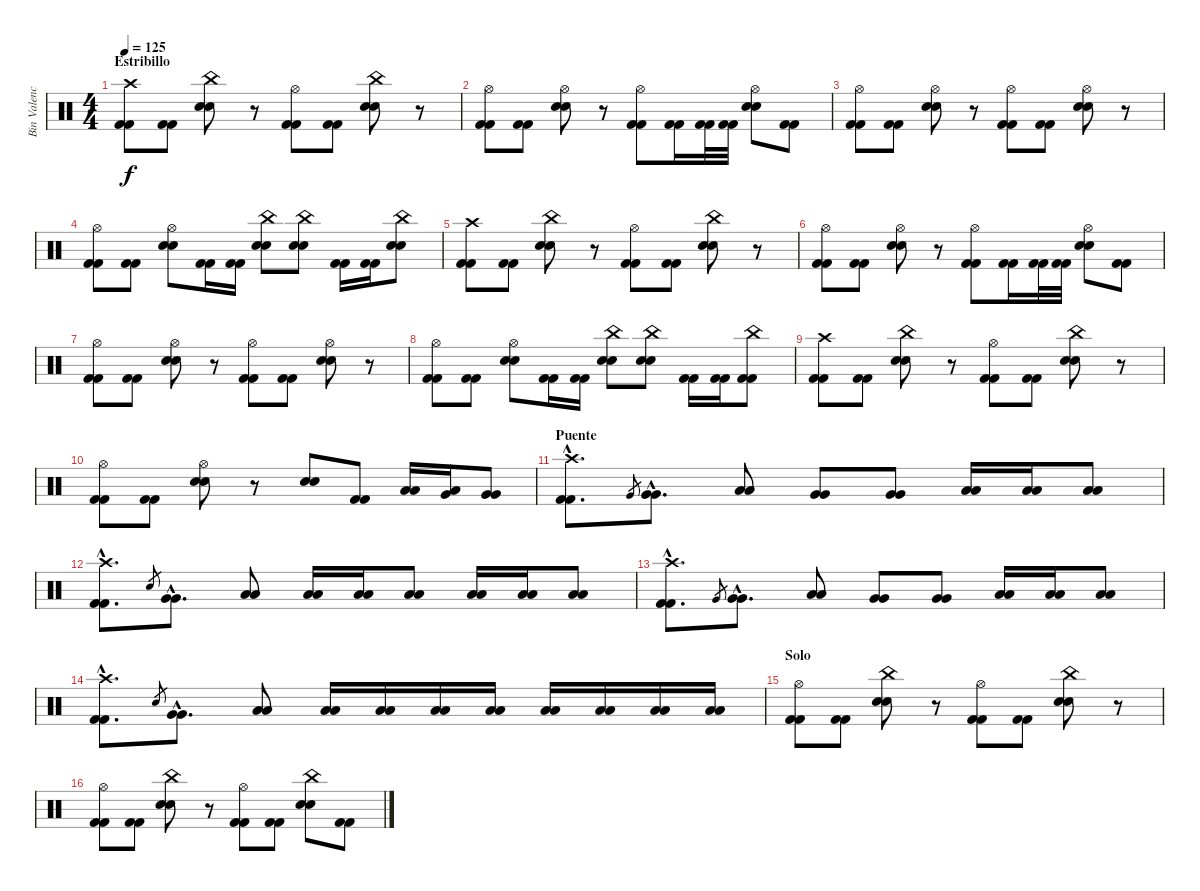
\track ("Bin Valencia (Bateria)" "Bin Valenc") {instrument percussion}
\staff {score}
\articulation defaults
\ts (4 4)
\section ("" "Estribillo")
\tempo 125
\clef neutral
\ks c
("Crash high (hit)" "Kick (hit) 2" "Kick (hit) 2").8{dy f} ("Kick (hit) 2" "Kick (hit) 2").8 ("China (hit)" "Snare (hit) 2" "Snare (hit) 2").8 r.8 ("Hi-Hat (open)" "Kick (hit) 2" "Kick (hit) 2").8 ("Kick (hit) 2" "Kick (hit) 2").8 ("China (hit)" "Snare (hit) 2" "Snare (hit) 2").8 r.8 |
("Hi-Hat (open)" "Kick (hit) 2" "Kick (hit) 2").8 ("Kick (hit) 2" "Kick (hit) 2").8 ("Hi-Hat (open)" "Snare (hit) 2" "Snare (hit) 2").8 r.8 ("Hi-Hat (open)" "Kick (hit) 2" "Kick (hit) 2").8 ("Kick (hit) 2" "Kick (hit) 2").16 ("Kick (hit) 2" "Kick (hit) 2").32 ("Kick (hit) 2" "Kick (hit) 2").32 ("Hi-Hat (open)" "Snare (hit) 2" "Snare (hit) 2").8 ("Kick (hit) 2" "Kick (hit) 2").8 |
("Hi-Hat (open)" "Kick (hit) 2" "Kick (hit) 2").8 ("Kick (hit) 2" "Kick (hit) 2").8 ("Hi-Hat (open)" "Snare (hit) 2" "Snare (hit) 2").8 r.8 ("Hi-Hat (open)" "Kick (hit) 2" "Kick (hit) 2").8 ("Kick (hit) 2" "Kick (hit) 2").8 ("Hi-Hat (open)" "Snare (hit) 2" "Snare (hit) 2").8 r.8 |
("Hi-Hat (open)" "Kick (hit) 2" "Kick (hit) 2").8 ("Kick (hit) 2" "Kick (hit) 2").8 ("Hi-Hat (open)" "Snare (hit) 2" "Snare (hit) 2").8 ("Kick (hit) 2" "Kick (hit) 2").16 ("Kick (hit) 2" "Kick (hit) 2").16 ("China (hit)" "Snare (hit) 2" "Snare (hit) 2").8 ("China (hit)" "Snare (hit) 2" "Snare (hit) 2").8 ("Kick (hit) 2" "Kick (hit) 2").16 ("Kick (hit) 2" "Kick (hit) 2").16 ("China (hit)" "Snare (hit) 2" "Snare (hit) 2").8 |
("Crash high (hit)" "Kick (hit) 2" "Kick (hit) 2").8 ("Kick (hit) 2" "Kick (hit) 2").8 ("China (hit)" "Snare (hit) 2" "Snare (hit) 2").8 r.8 ("Hi-Hat (open)" "Kick (hit) 2" "Kick (hit) 2").8 ("Kick (hit) 2" "Kick (hit) 2").8 ("China (hit)" "Snare (hit) 2" "Snare (hit) 2").8 r.8 |
("Hi-Hat (open)" "Kick (hit) 2" "Kick (hit) 2").8 ("Kick (hit) 2" "Kick (hit) 2").8 ("Hi-Hat (open)" "Snare (hit) 2" "Snare (hit) 2").8 r.8 ("Hi-Hat (open)" "Kick (hit) 2" "Kick (hit) 2").8 ("Kick (hit) 2" "Kick (hit) 2").16 ("Kick (hit) 2" "Kick (hit) 2").32 ("Kick (hit) 2" "Kick (hit) 2").32 ("Hi-Hat (open)" "Snare (hit) 2" "Snare (hit) 2").8 ("Kick (hit) 2" "Kick (hit) 2").8 |
("Hi-Hat (open)" "Kick (hit) 2" "Kick (hit) 2").8 ("Kick (hit) 2" "Kick (hit) 2").8 ("Hi-Hat (open)" "Snare (hit) 2" "Snare (hit) 2").8 r.8 ("Hi-Hat (open)" "Kick (hit) 2" "Kick (hit) 2").8 ("Kick (hit) 2" "Kick (hit) 2").8 ("Hi-Hat (open)" "Snare (hit) 2" "Snare (hit) 2").8 r.8 |
("Hi-Hat (open)" "Kick (hit) 2" "Kick (hit) 2").8 ("Kick (hit) 2" "Kick (hit) 2").8 ("Hi-Hat (open)" "Snare (hit) 2" "Snare (hit) 2").8 ("Kick (hit) 2" "Kick (hit) 2").16 ("Kick (hit) 2" "Kick (hit) 2").16 ("China (hit)" "Snare (hit) 2" "Snare (hit) 2").8 ("China (hit)" "Snare (hit) 2" "Snare (hit) 2").8 ("Kick (hit) 2" "Kick (hit) 2").16 ("Kick (hit) 2" "Kick (hit) 2").16 ("China (hit)" "Kick (hit) 2" "Kick (hit) 2").8 |
("Crash high (hit)" "Kick (hit) 2" "Kick (hit) 2").8 ("Kick (hit) 2" "Kick (hit) 2").8 ("China (hit)" "Snare (hit) 2" "Snare (hit) 2").8 r.8 ("Hi-Hat (open)" "Kick (hit) 2" "Kick (hit) 2").8 ("Kick (hit) 2" "Kick (hit) 2").8 ("China (hit)" "Snare (hit) 2" "Snare (hit) 2").8 r.8 |
("Hi-Hat (open)" "Kick (hit) 2" "Kick (hit) 2").8 ("Kick (hit) 2" "Kick (hit) 2").8 ("Hi-Hat (open)" "Snare (hit) 2" "Snare (hit) 2").8 r.8 ("Snare (hit) 2" "Snare (hit) 2").8 ("Kick (hit) 2" "Kick (hit) 2").8 ("Low Tom (hit)" "Low Tom (hit)").16 ("Very Low Tom (hit)" "Low Tom (hit)").16 ("Very Low Tom (hit)" "Very Low Tom (hit)").8 |
\section ("" "Puente")
("Crash high (hit)"{hac} "Kick (hit) 2"{hac} "Kick (hit) 2"{hac}).8{d} "Very Low Tom (hit)".8{gr} ("Very Low Tom (hit)"{hac} "Very Low Tom (hit)"{hac}).8{d} ("Low Tom (hit)" "Low Tom (hit)").8 ("Very Low Tom (hit)" "Very Low Tom (hit)").8 ("Very Low Tom (hit)" "Very Low Tom (hit)").8 ("Low Floor Tom (hit)" "Low Floor Tom (hit)").16 ("Low Floor Tom (hit)" "Low Floor Tom (hit)").16 ("Low Floor Tom (hit)" "Low Floor Tom (hit)").8 |
("Crash high (hit)"{hac} "Kick (hit) 2"{hac} "Kick (hit) 2"{hac}).8{d} "Metronome (bell)".8{gr} ("Very Low Tom (hit)"{hac} "Very Low Tom (hit)"{hac}).8{d} ("Low Tom (hit)" "Low Tom (hit)").8 ("Low Floor Tom (hit)" "Low Floor Tom (hit)").16 ("Low Floor Tom (hit)" "Low Floor Tom (hit)").16 ("Low Floor Tom (hit)" "Low Floor Tom (hit)").8 ("Low Floor Tom (hit)" "Low Floor Tom (hit)").16 ("Low Floor Tom (hit)" "Low Floor Tom (hit)").16 ("Low Floor Tom (hit)" "Low Floor Tom (hit)").8 |
("Crash high (hit)"{hac} "Kick (hit) 2"{hac} "Kick (hit) 2"{hac}).8{d} "Very Low Tom (hit)".8{gr} ("Very Low Tom (hit)"{hac} "Very Low Tom (hit)"{hac}).8{d} ("Low Tom (hit)" "Low Tom (hit)").8 ("Very Low Tom (hit)" "Very Low Tom (hit)").8 ("Very Low Tom (hit)" "Very Low Tom (hit)").8 ("Low Floor Tom (hit)" "Low Floor Tom (hit)").16 ("Low Floor Tom (hit)" "Low Floor Tom (hit)").16 ("Low Floor Tom (hit)" "Low Floor Tom (hit)").8 |
("Crash high (hit)"{hac} "Kick (hit) 2"{hac} "Kick (hit) 2"{hac}).8{d} "Metronome (bell)".8{gr} ("Very Low Tom (hit)"{hac} "Very Low Tom (hit)"{hac}).8{d} ("Low Tom (hit)" "Low Tom (hit)").8 ("Low Floor Tom (hit)" "Low Floor Tom (hit)").16 ("Low Floor Tom (hit)" "Low Floor Tom (hit)").16 ("Low Floor Tom (hit)" "Low Floor Tom (hit)").16 ("Low Floor Tom (hit)" "Low Floor Tom (hit)").16 ("Low Floor Tom (hit)" "Low Floor Tom (hit)").16 ("Low Floor Tom (hit)" "Low Floor Tom (hit)").16 ("Low Floor Tom (hit)" "Low Floor Tom (hit)").16 ("Low Floor Tom (hit)" "Low Floor Tom (hit)").16 |
\section ("" "Solo")
("Hi-Hat (open)" "Kick (hit) 2" "Kick (hit) 2").8 ("Kick (hit) 2" "Kick (hit) 2").8 ("China (hit)" "Snare (hit) 2" "Snare (hit) 2").8 r.8 ("Hi-Hat (open)" "Kick (hit) 2" "Kick (hit) 2").8 ("Kick (hit) 2" "Kick (hit) 2").8 ("China (hit)" "Snare (hit) 2" "Snare (hit) 2").8 r.8 |
("Hi-Hat (open)" "Kick (hit) 2" "Kick (hit) 2").8 ("Kick (hit) 2" "Kick (hit) 2").8 ("China (hit)" "Snare (hit) 2" "Snare (hit) 2").8 r.8 ("Hi-Hat (open)" "Kick (hit) 2" "Kick (hit) 2").8 ("Kick (hit) 2" "Kick (hit) 2").8 ("China (hit)" "Snare (hit) 2" "Snare (hit) 2").8 ("Kick (hit) 2" "Kick (hit) 2").8
